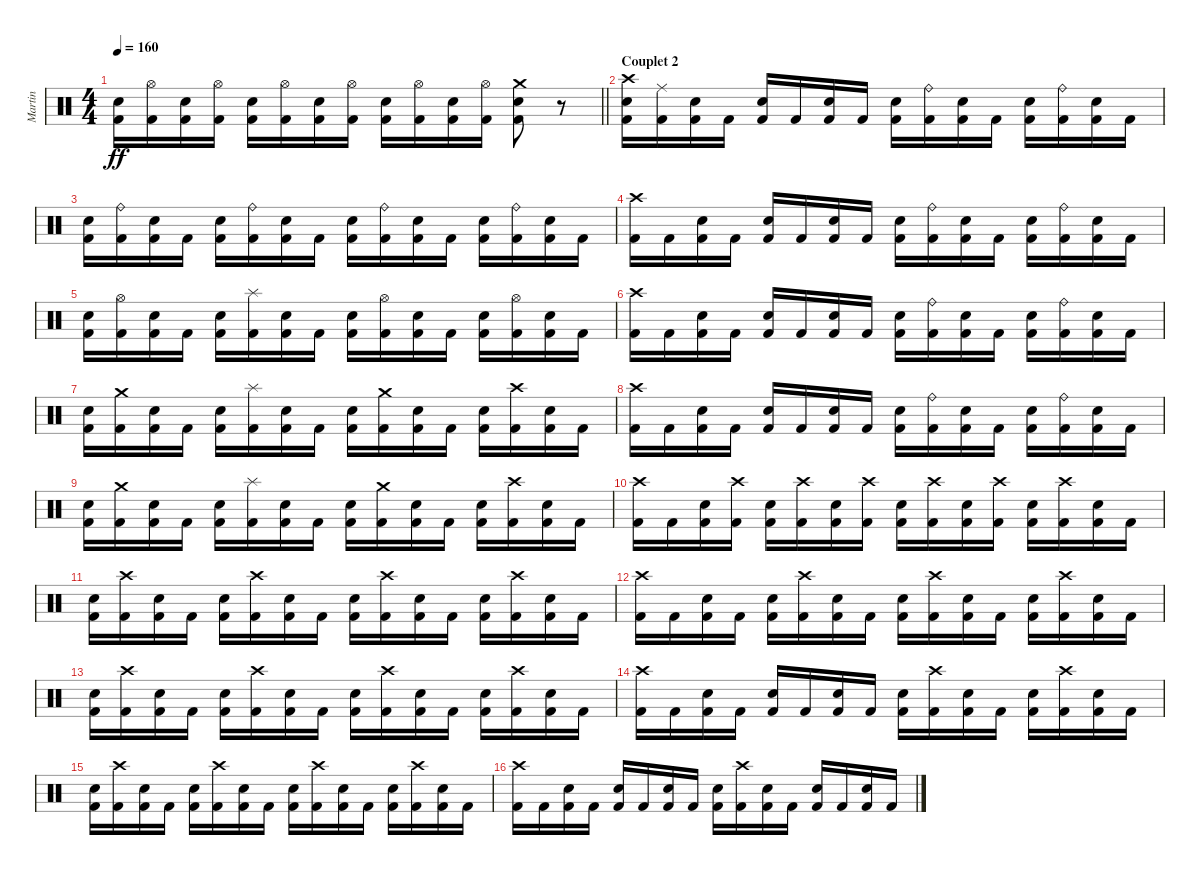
\track ("Martin" "Martin") {instrument percussion}
\staff {score}
\articulation defaults
\ts (4 4)
\tempo 160
\clef neutral
\barLineRight lightlight
\ks c
("Electric Snare (hit)" "Kick (hit) 2").16{dy ff} ("Hi-Hat (open)" "Kick (hit) 2").16 ("Electric Snare (hit)" "Kick (hit) 2").16 ("Hi-Hat (open)" "Kick (hit) 2").16 ("Electric Snare (hit)" "Kick (hit) 2").16 ("Hi-Hat (open)" "Kick (hit) 2").16 ("Electric Snare (hit)" "Kick (hit) 2").16 ("Hi-Hat (open)" "Kick (hit) 2").16 ("Electric Snare (hit)" "Kick (hit) 2").16 ("Hi-Hat (open)" "Kick (hit) 2").16 ("Electric Snare (hit)" "Kick (hit) 2").16 ("Hi-Hat (open)" "Kick (hit) 2").16 ("Snare (hit)" "Crash medium (hit)" "Kick (hit) 2").8 r.8 |
\section ("" "Couplet 2")
("Crash high (hit)" "Electric Snare (hit)" "Kick (hit) 2").16 ("Ride (middle)" "Kick (hit) 2").16 ("Electric Snare (hit)" "Kick (hit) 2").16 "Kick (hit) 2".16 ("Electric Snare (hit)" "Kick (hit) 2").16 "Kick (hit) 2".16 ("Electric Snare (hit)" "Kick (hit) 2").16 "Kick (hit) 2".16 ("Electric Snare (hit)" "Kick (hit) 2").16 ("Ride (bell)" "Kick (hit) 2").16 ("Electric Snare (hit)" "Kick (hit) 2").16 "Kick (hit) 2".16 ("Electric Snare (hit)" "Kick (hit) 2").16 ("Ride (bell)" "Kick (hit) 2").16 ("Electric Snare (hit)" "Kick (hit) 2").16 "Kick (hit) 2".16 |
("Electric Snare (hit)" "Kick (hit) 2").16 ("Ride (bell)" "Kick (hit) 2").16 ("Electric Snare (hit)" "Kick (hit) 2").16 "Kick (hit) 2".16 ("Electric Snare (hit)" "Kick (hit) 2").16 ("Ride (bell)" "Kick (hit) 2").16 ("Electric Snare (hit)" "Kick (hit) 2").16 "Kick (hit) 2".16 ("Electric Snare (hit)" "Kick (hit) 2").16 ("Ride (bell)" "Kick (hit) 2").16 ("Electric Snare (hit)" "Kick (hit) 2").16 "Kick (hit) 2".16 ("Electric Snare (hit)" "Kick (hit) 2").16 ("Ride (bell)" "Kick (hit) 2").16 ("Electric Snare (hit)" "Kick (hit) 2").16 "Kick (hit) 2".16 |
("Crash high (hit)" "Kick (hit) 2").16 "Kick (hit) 2".16 ("Electric Snare (hit)" "Kick (hit) 2").16 "Kick (hit) 2".16 ("Electric Snare (hit)" "Kick (hit) 2").16 "Kick (hit) 2".16 ("Electric Snare (hit)" "Kick (hit) 2").16 "Kick (hit) 2".16 ("Electric Snare (hit)" "Kick (hit) 2").16 ("Ride (bell)" "Kick (hit) 2").16 ("Electric Snare (hit)" "Kick (hit) 2").16 "Kick (hit) 2".16 ("Electric Snare (hit)" "Kick (hit) 2").16 ("Ride (bell)" "Kick (hit) 2").16 ("Electric Snare (hit)" "Kick (hit) 2").16 "Kick (hit) 2".16 |
("Electric Snare (hit)" "Kick (hit) 2").16 ("Hi-Hat (open)" "Kick (hit) 2").16 ("Electric Snare (hit)" "Kick (hit) 2").16 "Kick (hit) 2".16 ("Electric Snare (hit)" "Kick (hit) 2").16 ("Splash (hit)" "Kick (hit) 2").16 ("Electric Snare (hit)" "Kick (hit) 2").16 "Kick (hit) 2".16 ("Electric Snare (hit)" "Kick (hit) 2").16 ("Hi-Hat (open)" "Kick (hit) 2").16 ("Electric Snare (hit)" "Kick (hit) 2").16 "Kick (hit) 2".16 ("Electric Snare (hit)" "Kick (hit) 2").16 ("Hi-Hat (open)" "Kick (hit) 2").16 ("Electric Snare (hit)" "Kick (hit) 2").16 "Kick (hit) 2".16 |
("Crash high (hit)" "Kick (hit) 2").16 "Kick (hit) 2".16 ("Electric Snare (hit)" "Kick (hit) 2").16 "Kick (hit) 2".16 ("Electric Snare (hit)" "Kick (hit) 2").16 "Kick (hit) 2".16 ("Electric Snare (hit)" "Kick (hit) 2").16 "Kick (hit) 2".16 ("Electric Snare (hit)" "Kick (hit) 2").16 ("Ride (bell)" "Kick (hit) 2").16 ("Electric Snare (hit)" "Kick (hit) 2").16 "Kick (hit) 2".16 ("Electric Snare (hit)" "Kick (hit) 2").16 ("Ride (bell)" "Kick (hit) 2").16 ("Electric Snare (hit)" "Kick (hit) 2").16 "Kick (hit) 2".16 |
("Electric Snare (hit)" "Kick (hit) 2").16 ("Crash medium (hit)" "Kick (hit) 2").16 ("Electric Snare (hit)" "Kick (hit) 2").16 "Kick (hit) 2".16 ("Electric Snare (hit)" "Kick (hit) 2").16 ("Splash (hit)" "Kick (hit) 2").16 ("Electric Snare (hit)" "Kick (hit) 2").16 "Kick (hit) 2".16 ("Electric Snare (hit)" "Kick (hit) 2").16 ("Crash medium (hit)" "Kick (hit) 2").16 ("Electric Snare (hit)" "Kick (hit) 2").16 "Kick (hit) 2".16 ("Electric Snare (hit)" "Kick (hit) 2").16 ("Crash high (hit)" "Kick (hit) 2").16 ("Electric Snare (hit)" "Kick (hit) 2").16 "Kick (hit) 2".16 |
("Crash high (hit)" "Kick (hit) 2").16 "Kick (hit) 2".16 ("Electric Snare (hit)" "Kick (hit) 2").16 "Kick (hit) 2".16 ("Electric Snare (hit)" "Kick (hit) 2").16 "Kick (hit) 2".16 ("Electric Snare (hit)" "Kick (hit) 2").16 "Kick (hit) 2".16 ("Electric Snare (hit)" "Kick (hit) 2").16 ("Ride (bell)" "Kick (hit) 2").16 ("Electric Snare (hit)" "Kick (hit) 2").16 "Kick (hit) 2".16 ("Electric Snare (hit)" "Kick (hit) 2").16 ("Ride (bell)" "Kick (hit) 2").16 ("Electric Snare (hit)" "Kick (hit) 2").16 "Kick (hit) 2".16 |
("Electric Snare (hit)" "Kick (hit) 2").16 ("Crash medium (hit)" "Kick (hit) 2").16 ("Electric Snare (hit)" "Kick (hit) 2").16 "Kick (hit) 2".16 ("Electric Snare (hit)" "Kick (hit) 2").16 ("Splash (hit)" "Kick (hit) 2").16 ("Electric Snare (hit)" "Kick (hit) 2").16 "Kick (hit) 2".16 ("Electric Snare (hit)" "Kick (hit) 2").16 ("Crash medium (hit)" "Kick (hit) 2").16 ("Electric Snare (hit)" "Kick (hit) 2").16 "Kick (hit) 2".16 ("Electric Snare (hit)" "Kick (hit) 2").16 ("Crash high (hit)" "Kick (hit) 2").16 ("Electric Snare (hit)" "Kick (hit) 2").16 "Kick (hit) 2".16 |
("Crash high (hit)" "Kick (hit) 2").16 "Kick (hit) 2".16 ("Electric Snare (hit)" "Kick (hit) 2").16 ("Crash high (hit)" "Kick (hit) 2").16 ("Electric Snare (hit)" "Kick (hit) 2").16 ("Crash high (hit)" "Kick (hit) 2").16 ("Electric Snare (hit)" "Kick (hit) 2").16 ("Crash high (hit)" "Kick (hit) 2").16 ("Electric Snare (hit)" "Kick (hit) 2").16 ("Crash high (hit)" "Kick (hit) 2").16 ("Electric Snare (hit)" "Kick (hit) 2").16 ("Crash high (hit)" "Kick (hit) 2").16 ("Electric Snare (hit)" "Kick (hit) 2").16 ("Crash high (hit)" "Kick (hit) 2").16 ("Electric Snare (hit)" "Kick (hit) 2").16 "Kick (hit) 2".16 |
("Electric Snare (hit)" "Kick (hit) 2").16 ("Crash high (hit)" "Kick (hit) 2").16 ("Electric Snare (hit)" "Kick (hit) 2").16 "Kick (hit) 2".16 ("Electric Snare (hit)" "Kick (hit) 2").16 ("Crash high (hit)" "Kick (hit) 2").16 ("Electric Snare (hit)" "Kick (hit) 2").16 "Kick (hit) 2".16 ("Electric Snare (hit)" "Kick (hit) 2").16 ("Crash high (hit)" "Kick (hit) 2").16 ("Electric Snare (hit)" "Kick (hit) 2").16 "Kick (hit) 2".16 ("Electric Snare (hit)" "Kick (hit) 2").16 ("Crash high (hit)" "Kick (hit) 2").16 ("Electric Snare (hit)" "Kick (hit) 2").16 "Kick (hit) 2".16 |
("Crash high (hit)" "Kick (hit) 2").16 "Kick (hit) 2".16 ("Electric Snare (hit)" "Kick (hit) 2").16 "Kick (hit) 2".16 ("Electric Snare (hit)" "Kick (hit) 2").16 ("Crash high (hit)" "Kick (hit) 2").16 ("Electric Snare (hit)" "Kick (hit) 2").16 "Kick (hit) 2".16 ("Electric Snare (hit)" "Kick (hit) 2").16 ("Crash high (hit)" "Kick (hit) 2").16 ("Electric Snare (hit)" "Kick (hit) 2").16 "Kick (hit) 2".16 ("Electric Snare (hit)" "Kick (hit) 2").16 ("Crash high (hit)" "Kick (hit) 2").16 ("Electric Snare (hit)" "Kick (hit) 2").16 "Kick (hit) 2".16 |
("Electric Snare (hit)" "Kick (hit) 2").16 ("Crash high (hit)" "Kick (hit) 2").16 ("Electric Snare (hit)" "Kick (hit) 2").16 "Kick (hit) 2".16 ("Electric Snare (hit)" "Kick (hit) 2").16 ("Crash high (hit)" "Kick (hit) 2").16 ("Electric Snare (hit)" "Kick (hit) 2").16 "Kick (hit) 2".16 ("Electric Snare (hit)" "Kick (hit) 2").16 ("Crash high (hit)" "Kick (hit) 2").16 ("Electric Snare (hit)" "Kick (hit) 2").16 "Kick (hit) 2".16 ("Electric Snare (hit)" "Kick (hit) 2").16 ("Crash high (hit)" "Kick (hit) 2").16 ("Electric Snare (hit)" "Kick (hit) 2").16 "Kick (hit) 2".16 |
("Crash high (hit)" "Kick (hit) 2").16 "Kick (hit) 2".16 ("Electric Snare (hit)" "Kick (hit) 2").16 "Kick (hit) 2".16 ("Electric Snare (hit)" "Kick (hit) 2").16 "Kick (hit) 2".16 ("Electric Snare (hit)" "Kick (hit) 2").16 "Kick (hit) 2".16 ("Electric Snare (hit)" "Kick (hit) 2").16 ("Crash high (hit)" "Kick (hit) 2").16 ("Electric Snare (hit)" "Kick (hit) 2").16 "Kick (hit) 2".16 ("Electric Snare (hit)" "Kick (hit) 2").16 ("Crash high (hit)" "Kick (hit) 2").16 ("Electric Snare (hit)" "Kick (hit) 2").16 "Kick (hit) 2".16 |
("Electric Snare (hit)" "Kick (hit) 2").16 ("Crash high (hit)" "Kick (hit) 2").16 ("Electric Snare (hit)" "Kick (hit) 2").16 "Kick (hit) 2".16 ("Electric Snare (hit)" "Kick (hit) 2").16 ("Crash high (hit)" "Kick (hit) 2").16 ("Electric Snare (hit)" "Kick (hit) 2").16 "Kick (hit) 2".16 ("Electric Snare (hit)" "Kick (hit) 2").16 ("Crash high (hit)" "Kick (hit) 2").16 ("Electric Snare (hit)" "Kick (hit) 2").16 "Kick (hit) 2".16 ("Electric Snare (hit)" "Kick (hit) 2").16 ("Crash high (hit)" "Kick (hit) 2").16 ("Electric Snare (hit)" "Kick (hit) 2").16 "Kick (hit) 2".16 |
("Crash high (hit)" "Kick (hit) 2").16 "Kick (hit) 2".16 ("Electric Snare (hit)" "Kick (hit) 2").16 "Kick (hit) 2".16 ("Electric Snare (hit)" "Kick (hit) 2").16 "Kick (hit) 2".16 ("Electric Snare (hit)" "Kick (hit) 2").16 "Kick (hit) 2".16 ("Electric Snare (hit)" "Kick (hit) 2").16 ("Crash high (hit)" "Kick (hit) 2").16 ("Electric Snare (hit)" "Kick (hit) 2").16 "Kick (hit) 2".16 ("Electric Snare (hit)" "Kick (hit) 2").16 "Kick (hit) 2".16 ("Electric Snare (hit)" "Kick (hit) 2").16 "Kick (hit) 2".16
